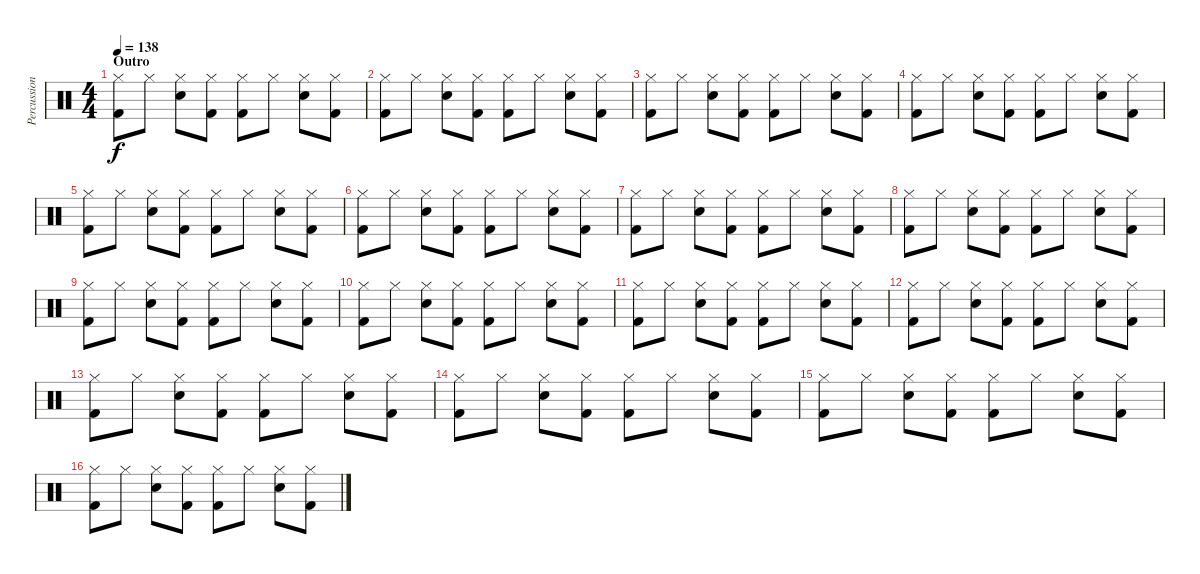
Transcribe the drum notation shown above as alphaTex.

\track ("Percussion" "Percussion") {instrument percussion}
\staff {score}
\articulation defaults
\ts (4 4)
\section ("" "Outro")
\tempo 138
\clef neutral
\ks c
("Hi-Hat (closed)" "Kick (hit) 2").8{dy f} "Hi-Hat (closed)".8 ("Hi-Hat (closed)" "Electric Snare (hit)").8 ("Hi-Hat (closed)" "Kick (hit) 2").8 ("Hi-Hat (closed)" "Kick (hit) 2").8 "Hi-Hat (closed)".8 ("Hi-Hat (closed)" "Electric Snare (hit)").8 ("Hi-Hat (closed)" "Kick (hit) 2").8 |
("Hi-Hat (closed)" "Kick (hit) 2").8 "Hi-Hat (closed)".8 ("Hi-Hat (closed)" "Electric Snare (hit)").8 ("Hi-Hat (closed)" "Kick (hit) 2").8 ("Hi-Hat (closed)" "Kick (hit) 2").8 "Hi-Hat (closed)".8 ("Hi-Hat (closed)" "Electric Snare (hit)").8 ("Hi-Hat (closed)" "Kick (hit) 2").8 |
("Hi-Hat (closed)" "Kick (hit) 2").8 "Hi-Hat (closed)".8 ("Hi-Hat (closed)" "Electric Snare (hit)").8 ("Hi-Hat (closed)" "Kick (hit) 2").8 ("Hi-Hat (closed)" "Kick (hit) 2").8 "Hi-Hat (closed)".8 ("Hi-Hat (closed)" "Electric Snare (hit)").8 ("Hi-Hat (closed)" "Kick (hit) 2").8 |
("Hi-Hat (closed)" "Kick (hit) 2").8 "Hi-Hat (closed)".8 ("Hi-Hat (closed)" "Electric Snare (hit)").8 ("Hi-Hat (closed)" "Kick (hit) 2").8 ("Hi-Hat (closed)" "Kick (hit) 2").8 "Hi-Hat (closed)".8 ("Hi-Hat (closed)" "Electric Snare (hit)").8 ("Hi-Hat (closed)" "Kick (hit) 2").8 |
("Hi-Hat (closed)" "Kick (hit) 2").8 "Hi-Hat (closed)".8 ("Hi-Hat (closed)" "Electric Snare (hit)").8 ("Hi-Hat (closed)" "Kick (hit) 2").8 ("Hi-Hat (closed)" "Kick (hit) 2").8 "Hi-Hat (closed)".8 ("Hi-Hat (closed)" "Electric Snare (hit)").8 ("Hi-Hat (closed)" "Kick (hit) 2").8 |
("Hi-Hat (closed)" "Kick (hit) 2").8 "Hi-Hat (closed)".8 ("Hi-Hat (closed)" "Electric Snare (hit)").8 ("Hi-Hat (closed)" "Kick (hit) 2").8 ("Hi-Hat (closed)" "Kick (hit) 2").8 "Hi-Hat (closed)".8 ("Hi-Hat (closed)" "Electric Snare (hit)").8 ("Hi-Hat (closed)" "Kick (hit) 2").8 |
("Hi-Hat (closed)" "Kick (hit) 2").8 "Hi-Hat (closed)".8 ("Hi-Hat (closed)" "Electric Snare (hit)").8 ("Hi-Hat (closed)" "Kick (hit) 2").8 ("Hi-Hat (closed)" "Kick (hit) 2").8 "Hi-Hat (closed)".8 ("Hi-Hat (closed)" "Electric Snare (hit)").8 ("Hi-Hat (closed)" "Kick (hit) 2").8 |
("Hi-Hat (closed)" "Kick (hit) 2").8 "Hi-Hat (closed)".8 ("Hi-Hat (closed)" "Electric Snare (hit)").8 ("Hi-Hat (closed)" "Kick (hit) 2").8 ("Hi-Hat (closed)" "Kick (hit) 2").8 "Hi-Hat (closed)".8 ("Hi-Hat (closed)" "Electric Snare (hit)").8 ("Hi-Hat (closed)" "Kick (hit) 2").8 |
("Hi-Hat (closed)" "Kick (hit) 2").8 "Hi-Hat (closed)".8 ("Hi-Hat (closed)" "Electric Snare (hit)").8 ("Hi-Hat (closed)" "Kick (hit) 2").8 ("Hi-Hat (closed)" "Kick (hit) 2").8 "Hi-Hat (closed)".8 ("Hi-Hat (closed)" "Electric Snare (hit)").8 ("Hi-Hat (closed)" "Kick (hit) 2").8 |
("Hi-Hat (closed)" "Kick (hit) 2").8 "Hi-Hat (closed)".8 ("Hi-Hat (closed)" "Electric Snare (hit)").8 ("Hi-Hat (closed)" "Kick (hit) 2").8 ("Hi-Hat (closed)" "Kick (hit) 2").8 "Hi-Hat (closed)".8 ("Hi-Hat (closed)" "Electric Snare (hit)").8 ("Hi-Hat (closed)" "Kick (hit) 2").8 |
("Hi-Hat (closed)" "Kick (hit) 2").8 "Hi-Hat (closed)".8 ("Hi-Hat (closed)" "Electric Snare (hit)").8 ("Hi-Hat (closed)" "Kick (hit) 2").8 ("Hi-Hat (closed)" "Kick (hit) 2").8 "Hi-Hat (closed)".8 ("Hi-Hat (closed)" "Electric Snare (hit)").8 ("Hi-Hat (closed)" "Kick (hit) 2").8 |
("Hi-Hat (closed)" "Kick (hit) 2").8 "Hi-Hat (closed)".8 ("Hi-Hat (closed)" "Electric Snare (hit)").8 ("Hi-Hat (closed)" "Kick (hit) 2").8 ("Hi-Hat (closed)" "Kick (hit) 2").8 "Hi-Hat (closed)".8 ("Hi-Hat (closed)" "Electric Snare (hit)").8 ("Hi-Hat (closed)" "Kick (hit) 2").8 |
("Hi-Hat (closed)" "Kick (hit) 2").8 "Hi-Hat (closed)".8 ("Hi-Hat (closed)" "Electric Snare (hit)").8 ("Hi-Hat (closed)" "Kick (hit) 2").8 ("Hi-Hat (closed)" "Kick (hit) 2").8 "Hi-Hat (closed)".8 ("Hi-Hat (closed)" "Electric Snare (hit)").8 ("Hi-Hat (closed)" "Kick (hit) 2").8 |
("Hi-Hat (closed)" "Kick (hit) 2").8 "Hi-Hat (closed)".8 ("Hi-Hat (closed)" "Electric Snare (hit)").8 ("Hi-Hat (closed)" "Kick (hit) 2").8 ("Hi-Hat (closed)" "Kick (hit) 2").8 "Hi-Hat (closed)".8 ("Hi-Hat (closed)" "Electric Snare (hit)").8 ("Hi-Hat (closed)" "Kick (hit) 2").8 |
("Hi-Hat (closed)" "Kick (hit) 2").8 "Hi-Hat (closed)".8 ("Hi-Hat (closed)" "Electric Snare (hit)").8 ("Hi-Hat (closed)" "Kick (hit) 2").8 ("Hi-Hat (closed)" "Kick (hit) 2").8 "Hi-Hat (closed)".8 ("Hi-Hat (closed)" "Electric Snare (hit)").8 ("Hi-Hat (closed)" "Kick (hit) 2").8 |
("Hi-Hat (closed)" "Kick (hit) 2").8 "Hi-Hat (closed)".8 ("Hi-Hat (closed)" "Electric Snare (hit)").8 ("Hi-Hat (closed)" "Kick (hit) 2").8 ("Hi-Hat (closed)" "Kick (hit) 2").8 "Hi-Hat (closed)".8 ("Hi-Hat (closed)" "Electric Snare (hit)").8 ("Hi-Hat (closed)" "Kick (hit) 2").8
